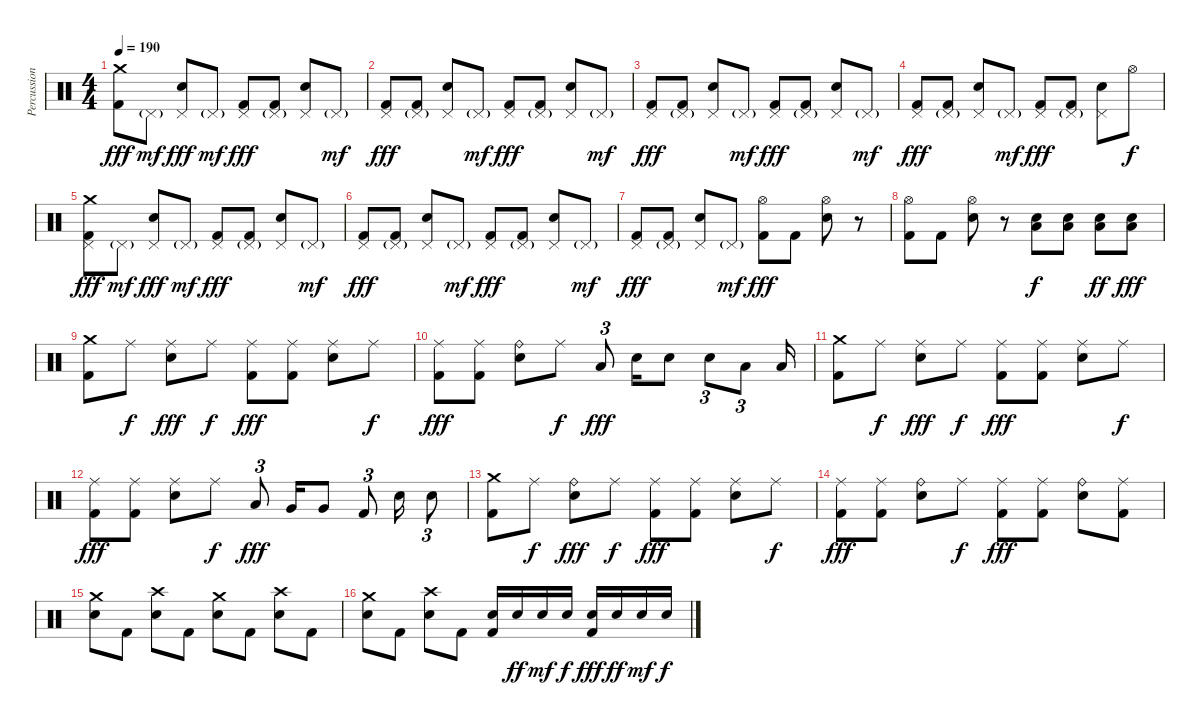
\track ("Percussions" "Percussion") {instrument percussion}
\staff {score}
\articulation defaults
\ts (4 4)
\tempo 190
\clef neutral
\ks c
("Crash medium (hit)" "Kick (hit) 2").8{dy fff} "Pedal Hi-Hat (hit)"{g}.8{dy mf} ("Pedal Hi-Hat (hit)" "Electric Snare (hit)").8{dy fff} "Pedal Hi-Hat (hit)"{g}.8{dy mf} ("Pedal Hi-Hat (hit)" "Kick (hit) 2").8{dy fff} ("Pedal Hi-Hat (hit)"{g} "Kick (hit) 2").8 ("Pedal Hi-Hat (hit)" "Electric Snare (hit)").8 "Pedal Hi-Hat (hit)"{g}.8{dy mf} |
("Pedal Hi-Hat (hit)" "Kick (hit) 2").8{dy fff} ("Pedal Hi-Hat (hit)"{g} "Kick (hit) 2").8 ("Pedal Hi-Hat (hit)" "Electric Snare (hit)").8 "Pedal Hi-Hat (hit)"{g}.8{dy mf} ("Pedal Hi-Hat (hit)" "Kick (hit) 2").8{dy fff} ("Pedal Hi-Hat (hit)"{g} "Kick (hit) 2").8 ("Pedal Hi-Hat (hit)" "Electric Snare (hit)").8 "Pedal Hi-Hat (hit)"{g}.8{dy mf} |
("Pedal Hi-Hat (hit)" "Kick (hit) 2").8{dy fff} ("Pedal Hi-Hat (hit)"{g} "Kick (hit) 2").8 ("Pedal Hi-Hat (hit)" "Electric Snare (hit)").8 "Pedal Hi-Hat (hit)"{g}.8{dy mf} ("Pedal Hi-Hat (hit)" "Kick (hit) 2").8{dy fff} ("Pedal Hi-Hat (hit)"{g} "Kick (hit) 2").8 ("Pedal Hi-Hat (hit)" "Electric Snare (hit)").8 "Pedal Hi-Hat (hit)"{g}.8{dy mf} |
("Pedal Hi-Hat (hit)" "Kick (hit) 2").8{dy fff} ("Pedal Hi-Hat (hit)"{g} "Kick (hit) 2").8 ("Pedal Hi-Hat (hit)" "Electric Snare (hit)").8 "Pedal Hi-Hat (hit)"{g}.8{dy mf} ("Pedal Hi-Hat (hit)" "Kick (hit) 2").8{dy fff} ("Pedal Hi-Hat (hit)"{g} "Kick (hit) 2").8 ("Pedal Hi-Hat (hit)" "Electric Snare (hit)").8 "Hi-Hat (open)".8{dy f} |
("Crash medium (hit)" "Pedal Hi-Hat (hit)" "Kick (hit) 2").8{dy fff} "Pedal Hi-Hat (hit)"{g}.8{dy mf} ("Pedal Hi-Hat (hit)" "Electric Snare (hit)").8{dy fff} "Pedal Hi-Hat (hit)"{g}.8{dy mf} ("Pedal Hi-Hat (hit)" "Kick (hit) 2").8{dy fff} ("Pedal Hi-Hat (hit)"{g} "Kick (hit) 2").8 ("Pedal Hi-Hat (hit)" "Electric Snare (hit)").8 "Pedal Hi-Hat (hit)"{g}.8{dy mf} |
("Pedal Hi-Hat (hit)" "Kick (hit) 2").8{dy fff} ("Pedal Hi-Hat (hit)"{g} "Kick (hit) 2").8 ("Pedal Hi-Hat (hit)" "Electric Snare (hit)").8 "Pedal Hi-Hat (hit)"{g}.8{dy mf} ("Pedal Hi-Hat (hit)" "Kick (hit) 2").8{dy fff} ("Pedal Hi-Hat (hit)"{g} "Kick (hit) 2").8 ("Pedal Hi-Hat (hit)" "Electric Snare (hit)").8 "Pedal Hi-Hat (hit)"{g}.8{dy mf} |
("Pedal Hi-Hat (hit)" "Kick (hit) 2").8{dy fff} ("Pedal Hi-Hat (hit)"{g} "Kick (hit) 2").8 ("Pedal Hi-Hat (hit)" "Electric Snare (hit)").8 "Pedal Hi-Hat (hit)"{g}.8{dy mf} ("Hi-Hat (open)" "Kick (hit) 2").8{dy fff} "Kick (hit) 2".8 ("Hi-Hat (open)" "Electric Snare (hit)").8 r.8 |
("Hi-Hat (open)" "Kick (hit) 2").8 "Kick (hit) 2".8 ("Hi-Hat (open)" "Electric Snare (hit)").8 r.8 ("Electric Snare (hit)" "Low Floor Tom (hit)").8{dy f} ("Electric Snare (hit)" "Low Floor Tom (hit)").8 ("Electric Snare (hit)" "Low Floor Tom (hit)").8{dy ff} ("Electric Snare (hit)" "Low Floor Tom (hit)").8{dy fff} |
("Crash medium (hit)" "Kick (hit) 2").8 "Ride (middle)".8{dy f} ("Ride (middle)" "Electric Snare (hit)").8{dy fff} "Ride (middle)".8{dy f} ("Ride (middle)" "Kick (hit) 2").8{dy fff} ("Ride (middle)" "Kick (hit) 2").8 ("Ride (middle)" "Electric Snare (hit)").8 "Ride (middle)".8{dy f} |
("Ride (middle)" "Kick (hit) 2").8{dy fff} ("Ride (middle)" "Kick (hit) 2").8 ("Ride (bell)" "Electric Snare (hit)").8 "Ride (middle)".8{dy f} "Low Floor Tom (hit)".8{tu (3 2) dy fff} "Electric Snare (hit)".16 "Electric Snare (hit)".8 "Electric Snare (hit)".8{tu (3 2)} "Low Floor Tom (hit)".8{tu (3 2)} "Low Floor Tom (hit)".16 |
("Crash medium (hit)" "Kick (hit) 2").8 "Ride (middle)".8{dy f} ("Ride (middle)" "Electric Snare (hit)").8{dy fff} "Ride (middle)".8{dy f} ("Ride (middle)" "Kick (hit) 2").8{dy fff} ("Ride (middle)" "Kick (hit) 2").8 ("Ride (middle)" "Electric Snare (hit)").8 "Ride (middle)".8{dy f} |
("Ride (middle)" "Kick (hit) 2").8{dy fff} ("Ride (middle)" "Kick (hit) 2").8 ("Ride (middle)" "Electric Snare (hit)").8 "Ride (middle)".8{dy f} "Low Floor Tom (hit)".8{tu (3 2) dy fff} "Very Low Tom (hit)".16 "Very Low Tom (hit)".8 "Kick (hit) 2".8{tu (3 2)} "Electric Snare (hit)".16 "Electric Snare (hit)".8{tu (3 2)} |
("Crash medium (hit)" "Kick (hit) 2").8 "Ride (middle)".8{dy f} ("Ride (bell)" "Electric Snare (hit)").8{dy fff} "Ride (middle)".8{dy f} ("Ride (middle)" "Kick (hit) 2").8{dy fff} ("Ride (middle)" "Kick (hit) 2").8 ("Ride (middle)" "Electric Snare (hit)").8 "Ride (middle)".8{dy f} |
("Ride (middle)" "Kick (hit) 2").8{dy fff} ("Ride (middle)" "Kick (hit) 2").8 ("Ride (bell)" "Electric Snare (hit)").8 "Ride (middle)".8{dy f} ("Ride (middle)" "Kick (hit) 2").8{dy fff} ("Ride (middle)" "Kick (hit) 2").8 ("Ride (bell)" "Electric Snare (hit)").8 ("Ride (middle)" "Kick (hit) 2").8 |
("Crash medium (hit)" "Electric Snare (hit)").8 "Kick (hit) 2".8 ("Crash high (hit)" "Electric Snare (hit)").8 "Kick (hit) 2".8 ("Crash medium (hit)" "Electric Snare (hit)").8 "Kick (hit) 2".8 ("Crash high (hit)" "Electric Snare (hit)").8 "Kick (hit) 2".8 |
("Crash medium (hit)" "Electric Snare (hit)").8 "Kick (hit) 2".8 ("Crash high (hit)" "Electric Snare (hit)").8 "Kick (hit) 2".8 ("Electric Snare (hit)" "Kick (hit) 2").16 "Electric Snare (hit)".16{dy ff} "Electric Snare (hit)".16{dy mf} "Electric Snare (hit)".16{dy f} ("Electric Snare (hit)" "Kick (hit) 2").16{dy fff} "Electric Snare (hit)".16{dy ff} "Electric Snare (hit)".16{dy mf} "Electric Snare (hit)".16{dy f}
